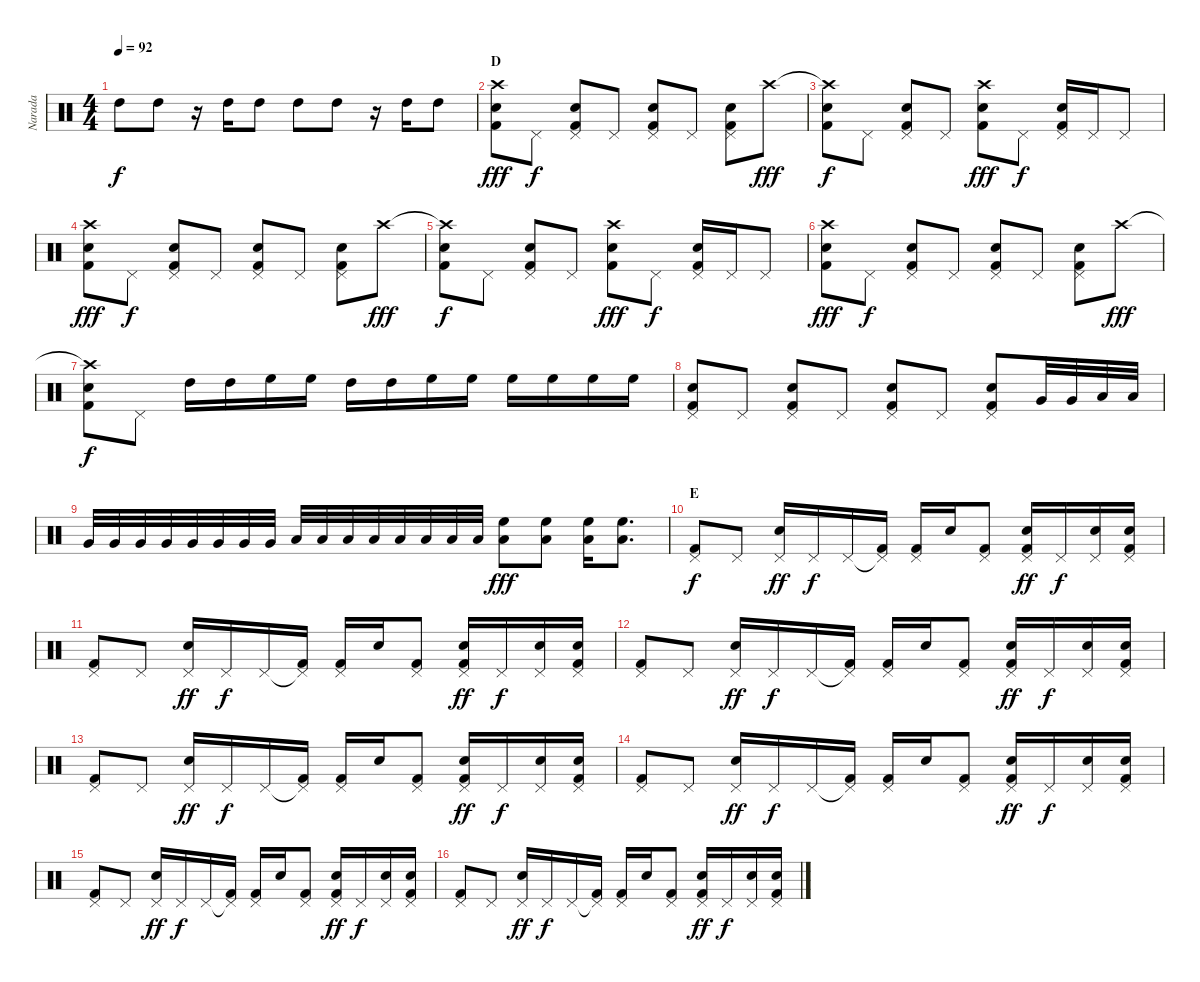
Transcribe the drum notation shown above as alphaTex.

\track ("Narada" "Narada") {instrument percussion}
\staff {score}
\articulation defaults
\ts (4 4)
\tempo 92
\clef neutral
\ks c "High Tom (hit)".8{dy f} "High Tom (hit)".8
r.16 "High Tom (hit)".16 "High Tom (hit)".8 "High Tom (hit)".8 "High Tom (hit)".8 r.16 "High Tom (hit)".16 "High Tom (hit)".8 |
\section ("" "D")
("Crash high (hit)" "Snare (hit) 2" "Kick (hit) 2").8{dy fff} "Pedal Hi-Hat (hit)".8{dy f} ("Pedal Hi-Hat (hit)" "Snare (hit) 2" "Kick (hit) 2").8 "Pedal Hi-Hat (hit)".8 ("Pedal Hi-Hat (hit)" "Snare (hit) 2" "Kick (hit) 2").8 "Pedal Hi-Hat (hit)".8 ("Pedal Hi-Hat (hit)" "Snare (hit) 2" "Kick (hit) 2").8 "Crash high (hit)".8{dy fff} |
("Crash high (hit)"{t} "Snare (hit) 2" "Kick (hit) 2").8{dy f} "Pedal Hi-Hat (hit)".8 ("Pedal Hi-Hat (hit)" "Snare (hit) 2" "Kick (hit) 2").8 "Pedal Hi-Hat (hit)".8 ("Crash high (hit)" "Snare (hit) 2" "Kick (hit) 2").8{dy fff} "Pedal Hi-Hat (hit)".8{dy f} ("Pedal Hi-Hat (hit)" "Snare (hit) 2" "Kick (hit) 2").16 "Pedal Hi-Hat (hit)".16 "Pedal Hi-Hat (hit)".8 |
("Crash high (hit)" "Snare (hit) 2" "Kick (hit) 2").8{dy fff} "Pedal Hi-Hat (hit)".8{dy f} ("Pedal Hi-Hat (hit)" "Snare (hit) 2" "Kick (hit) 2").8 "Pedal Hi-Hat (hit)".8 ("Pedal Hi-Hat (hit)" "Snare (hit) 2" "Kick (hit) 2").8 "Pedal Hi-Hat (hit)".8 ("Pedal Hi-Hat (hit)" "Snare (hit) 2" "Kick (hit) 2").8 "Crash high (hit)".8{dy fff} |
("Crash high (hit)"{t} "Snare (hit) 2" "Kick (hit) 2").8{dy f} "Pedal Hi-Hat (hit)".8 ("Pedal Hi-Hat (hit)" "Snare (hit) 2" "Kick (hit) 2").8 "Pedal Hi-Hat (hit)".8 ("Crash high (hit)" "Snare (hit) 2" "Kick (hit) 2").8{dy fff} "Pedal Hi-Hat (hit)".8{dy f} ("Pedal Hi-Hat (hit)" "Snare (hit) 2" "Kick (hit) 2").16 "Pedal Hi-Hat (hit)".16 "Pedal Hi-Hat (hit)".8 |
("Crash high (hit)" "Snare (hit) 2" "Kick (hit) 2").8{dy fff} "Pedal Hi-Hat (hit)".8{dy f} ("Pedal Hi-Hat (hit)" "Snare (hit) 2" "Kick (hit) 2").8 "Pedal Hi-Hat (hit)".8 ("Pedal Hi-Hat (hit)" "Snare (hit) 2" "Kick (hit) 2").8 "Pedal Hi-Hat (hit)".8 ("Pedal Hi-Hat (hit)" "Snare (hit) 2" "Kick (hit) 2").8 "Crash high (hit)".8{dy fff} |
("Crash high (hit)"{t} "Snare (hit) 2" "Kick (hit) 2").8{dy f} "Pedal Hi-Hat (hit)".8 "High Tom (hit)".16 "High Tom (hit)".16 "High Floor Tom (hit)".16 "High Floor Tom (hit)".16 "High Tom (hit)".16 "High Tom (hit)".16 "High Floor Tom (hit)".16 "High Floor Tom (hit)".16 "High Floor Tom (hit)".16 "High Floor Tom (hit)".16 "High Floor Tom (hit)".16 "High Floor Tom (hit)".16 |
("Pedal Hi-Hat (hit)" "Snare (hit) 2" "Kick (hit) 2").8 "Pedal Hi-Hat (hit)".8 ("Pedal Hi-Hat (hit)" "Snare (hit) 2" "Kick (hit) 2").8 "Pedal Hi-Hat (hit)".8 ("Pedal Hi-Hat (hit)" "Snare (hit) 2" "Kick (hit) 2").8 "Pedal Hi-Hat (hit)".8 ("Pedal Hi-Hat (hit)" "Snare (hit) 2" "Kick (hit) 2").8 "Very Low Tom (hit)".32 "Very Low Tom (hit)".32 "Low Tom (hit)".32 "Low Tom (hit)".32 |
"Very Low Tom (hit)".32 "Very Low Tom (hit)".32 "Very Low Tom (hit)".32 "Very Low Tom (hit)".32 "Very Low Tom (hit)".32 "Very Low Tom (hit)".32 "Very Low Tom (hit)".32 "Very Low Tom (hit)".32 "Low Tom (hit)".32 "Low Tom (hit)".32 "Low Tom (hit)".32 "Low Tom (hit)".32 "Low Floor Tom (hit)".32 "Low Floor Tom (hit)".32 "Low Floor Tom (hit)".32 "Low Floor Tom (hit)".32 ("High Floor Tom (hit)" "Low Tom (hit)").8{dy fff} ("High Floor Tom (hit)" "Low Tom (hit)").8 ("High Floor Tom (hit)" "Low Tom (hit)").16 ("High Floor Tom (hit)" "Low Tom (hit)").8{d} |
\section ("" "E")
("Pedal Hi-Hat (hit)" "Kick (hit) 2").8{dy f} "Pedal Hi-Hat (hit)".8 ("Pedal Hi-Hat (hit)" "Snare (hit) 2").16{dy ff} "Pedal Hi-Hat (hit)".16{dy f} "Pedal Hi-Hat (hit)".16 ("Pedal Hi-Hat (hit)"{t} "Kick (hit) 2").16 ("Pedal Hi-Hat (hit)" "Kick (hit) 2").16 "Snare (hit) 2".16 ("Pedal Hi-Hat (hit)" "Kick (hit) 2").8 ("Pedal Hi-Hat (hit)" "Snare (hit) 2" "Kick (hit) 2").16{dy ff} "Pedal Hi-Hat (hit)".16{dy f} ("Pedal Hi-Hat (hit)" "Snare (hit) 2").16 ("Pedal Hi-Hat (hit)" "Snare (hit) 2" "Kick (hit) 2").16 |
("Pedal Hi-Hat (hit)" "Kick (hit) 2").8 "Pedal Hi-Hat (hit)".8 ("Pedal Hi-Hat (hit)" "Snare (hit) 2").16{dy ff} "Pedal Hi-Hat (hit)".16{dy f} "Pedal Hi-Hat (hit)".16 ("Pedal Hi-Hat (hit)"{t} "Kick (hit) 2").16 ("Pedal Hi-Hat (hit)" "Kick (hit) 2").16 "Snare (hit) 2".16 ("Pedal Hi-Hat (hit)" "Kick (hit) 2").8 ("Pedal Hi-Hat (hit)" "Snare (hit) 2" "Kick (hit) 2").16{dy ff} "Pedal Hi-Hat (hit)".16{dy f} ("Pedal Hi-Hat (hit)" "Snare (hit) 2").16 ("Pedal Hi-Hat (hit)" "Snare (hit) 2" "Kick (hit) 2").16 |
("Pedal Hi-Hat (hit)" "Kick (hit) 2").8 "Pedal Hi-Hat (hit)".8 ("Pedal Hi-Hat (hit)" "Snare (hit) 2").16{dy ff} "Pedal Hi-Hat (hit)".16{dy f} "Pedal Hi-Hat (hit)".16 ("Pedal Hi-Hat (hit)"{t} "Kick (hit) 2").16 ("Pedal Hi-Hat (hit)" "Kick (hit) 2").16 "Snare (hit) 2".16 ("Pedal Hi-Hat (hit)" "Kick (hit) 2").8 ("Pedal Hi-Hat (hit)" "Snare (hit) 2" "Kick (hit) 2").16{dy ff} "Pedal Hi-Hat (hit)".16{dy f} ("Pedal Hi-Hat (hit)" "Snare (hit) 2").16 ("Pedal Hi-Hat (hit)" "Snare (hit) 2" "Kick (hit) 2").16 |
("Pedal Hi-Hat (hit)" "Kick (hit) 2").8 "Pedal Hi-Hat (hit)".8 ("Pedal Hi-Hat (hit)" "Snare (hit) 2").16{dy ff} "Pedal Hi-Hat (hit)".16{dy f} "Pedal Hi-Hat (hit)".16 ("Pedal Hi-Hat (hit)"{t} "Kick (hit) 2").16 ("Pedal Hi-Hat (hit)" "Kick (hit) 2").16 "Snare (hit) 2".16 ("Pedal Hi-Hat (hit)" "Kick (hit) 2").8 ("Pedal Hi-Hat (hit)" "Snare (hit) 2" "Kick (hit) 2").16{dy ff} "Pedal Hi-Hat (hit)".16{dy f} ("Pedal Hi-Hat (hit)" "Snare (hit) 2").16 ("Pedal Hi-Hat (hit)" "Snare (hit) 2" "Kick (hit) 2").16 |
("Pedal Hi-Hat (hit)" "Kick (hit) 2").8 "Pedal Hi-Hat (hit)".8 ("Pedal Hi-Hat (hit)" "Snare (hit) 2").16{dy ff} "Pedal Hi-Hat (hit)".16{dy f} "Pedal Hi-Hat (hit)".16 ("Pedal Hi-Hat (hit)"{t} "Kick (hit) 2").16 ("Pedal Hi-Hat (hit)" "Kick (hit) 2").16 "Snare (hit) 2".16 ("Pedal Hi-Hat (hit)" "Kick (hit) 2").8 ("Pedal Hi-Hat (hit)" "Snare (hit) 2" "Kick (hit) 2").16{dy ff} "Pedal Hi-Hat (hit)".16{dy f} ("Pedal Hi-Hat (hit)" "Snare (hit) 2").16 ("Pedal Hi-Hat (hit)" "Snare (hit) 2" "Kick (hit) 2").16 |
("Pedal Hi-Hat (hit)" "Kick (hit) 2").8 "Pedal Hi-Hat (hit)".8 ("Pedal Hi-Hat (hit)" "Snare (hit) 2").16{dy ff} "Pedal Hi-Hat (hit)".16{dy f} "Pedal Hi-Hat (hit)".16 ("Pedal Hi-Hat (hit)"{t} "Kick (hit) 2").16 ("Pedal Hi-Hat (hit)" "Kick (hit) 2").16 "Snare (hit) 2".16 ("Pedal Hi-Hat (hit)" "Kick (hit) 2").8 ("Pedal Hi-Hat (hit)" "Snare (hit) 2" "Kick (hit) 2").16{dy ff} "Pedal Hi-Hat (hit)".16{dy f} ("Pedal Hi-Hat (hit)" "Snare (hit) 2").16 ("Pedal Hi-Hat (hit)" "Snare (hit) 2" "Kick (hit) 2").16 |
("Pedal Hi-Hat (hit)" "Kick (hit) 2").8 "Pedal Hi-Hat (hit)".8 ("Pedal Hi-Hat (hit)" "Snare (hit) 2").16{dy ff} "Pedal Hi-Hat (hit)".16{dy f} "Pedal Hi-Hat (hit)".16 ("Pedal Hi-Hat (hit)"{t} "Kick (hit) 2").16 ("Pedal Hi-Hat (hit)" "Kick (hit) 2").16 "Snare (hit) 2".16 ("Pedal Hi-Hat (hit)" "Kick (hit) 2").8 ("Pedal Hi-Hat (hit)" "Snare (hit) 2" "Kick (hit) 2").16{dy ff} "Pedal Hi-Hat (hit)".16{dy f} ("Pedal Hi-Hat (hit)" "Snare (hit) 2").16 ("Pedal Hi-Hat (hit)" "Snare (hit) 2" "Kick (hit) 2").16
